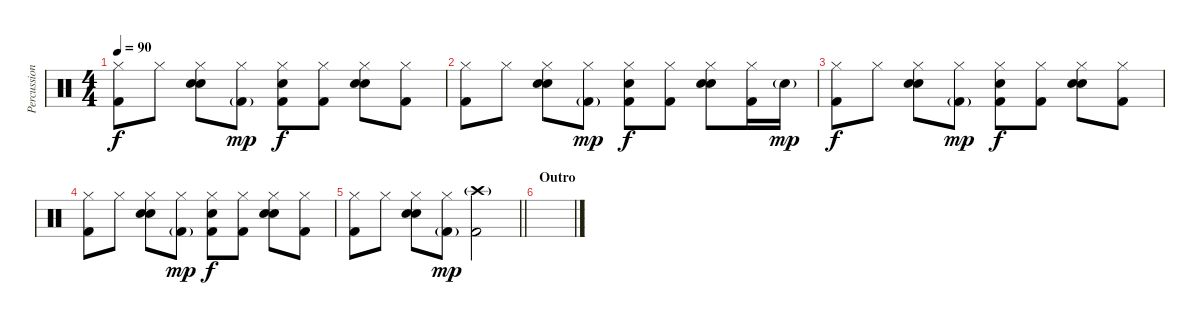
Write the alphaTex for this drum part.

\track ("Percussion" "Percussion") {instrument percussion}
\staff {score}
\articulation defaults
\ts (4 4)
\tempo 90
\clef neutral
\ks c
("Hi-Hat (closed)" "Kick (hit) 2").8{dy f} "Hi-Hat (closed)".8 ("Hi-Hat (closed)" "Hand Clap (hit)" "Snare (hit) 2").8 ("Hi-Hat (closed)" "Kick (hit) 2"{g}).8{dy mp} ("Hi-Hat (closed)" "Hand Clap (hit)" "Kick (hit) 2").8{dy f} ("Hi-Hat (closed)" "Kick (hit) 2").8 ("Hi-Hat (closed)" "Hand Clap (hit)" "Snare (hit) 2").8 ("Hi-Hat (closed)" "Kick (hit) 2").8 |
("Hi-Hat (closed)" "Kick (hit) 2").8 "Hi-Hat (closed)".8 ("Hi-Hat (closed)" "Hand Clap (hit)" "Snare (hit) 2").8 ("Hi-Hat (closed)" "Kick (hit) 2"{g}).8{dy mp} ("Hi-Hat (closed)" "Hand Clap (hit)" "Kick (hit) 2").8{dy f} ("Hi-Hat (closed)" "Kick (hit) 2").8 ("Hi-Hat (closed)" "Hand Clap (hit)" "Snare (hit) 2").8 ("Hi-Hat (closed)" "Kick (hit) 2").16 "Snare (hit) 2"{g}.16{dy mp} |
("Hi-Hat (closed)" "Kick (hit) 2").8{dy f} "Hi-Hat (closed)".8 ("Hi-Hat (closed)" "Hand Clap (hit)" "Snare (hit) 2").8 ("Hi-Hat (closed)" "Kick (hit) 2"{g}).8{dy mp} ("Hi-Hat (closed)" "Hand Clap (hit)" "Kick (hit) 2").8{dy f} ("Hi-Hat (closed)" "Kick (hit) 2").8 ("Hi-Hat (closed)" "Hand Clap (hit)" "Snare (hit) 2").8 ("Hi-Hat (closed)" "Kick (hit) 2").8 |
("Hi-Hat (closed)" "Kick (hit) 2").8 "Hi-Hat (closed)".8 ("Hi-Hat (closed)" "Hand Clap (hit)" "Snare (hit) 2").8 ("Hi-Hat (closed)" "Kick (hit) 2"{g}).8{dy mp} ("Hi-Hat (closed)" "Hand Clap (hit)" "Kick (hit) 2").8{dy f} ("Hi-Hat (closed)" "Kick (hit) 2").8 ("Hi-Hat (closed)" "Hand Clap (hit)" "Snare (hit) 2").8 ("Hi-Hat (closed)" "Kick (hit) 2").8 |
\barLineRight lightlight
("Hi-Hat (closed)" "Kick (hit) 2").8 "Hi-Hat (closed)".8 ("Hi-Hat (closed)" "Hand Clap (hit)" "Snare (hit) 2").8 ("Hi-Hat (closed)" "Kick (hit) 2"{g}).8{dy mp} ("Crash high (hit)"{g} "Kick (hit) 2").2 |
\section ("" "Outro")
